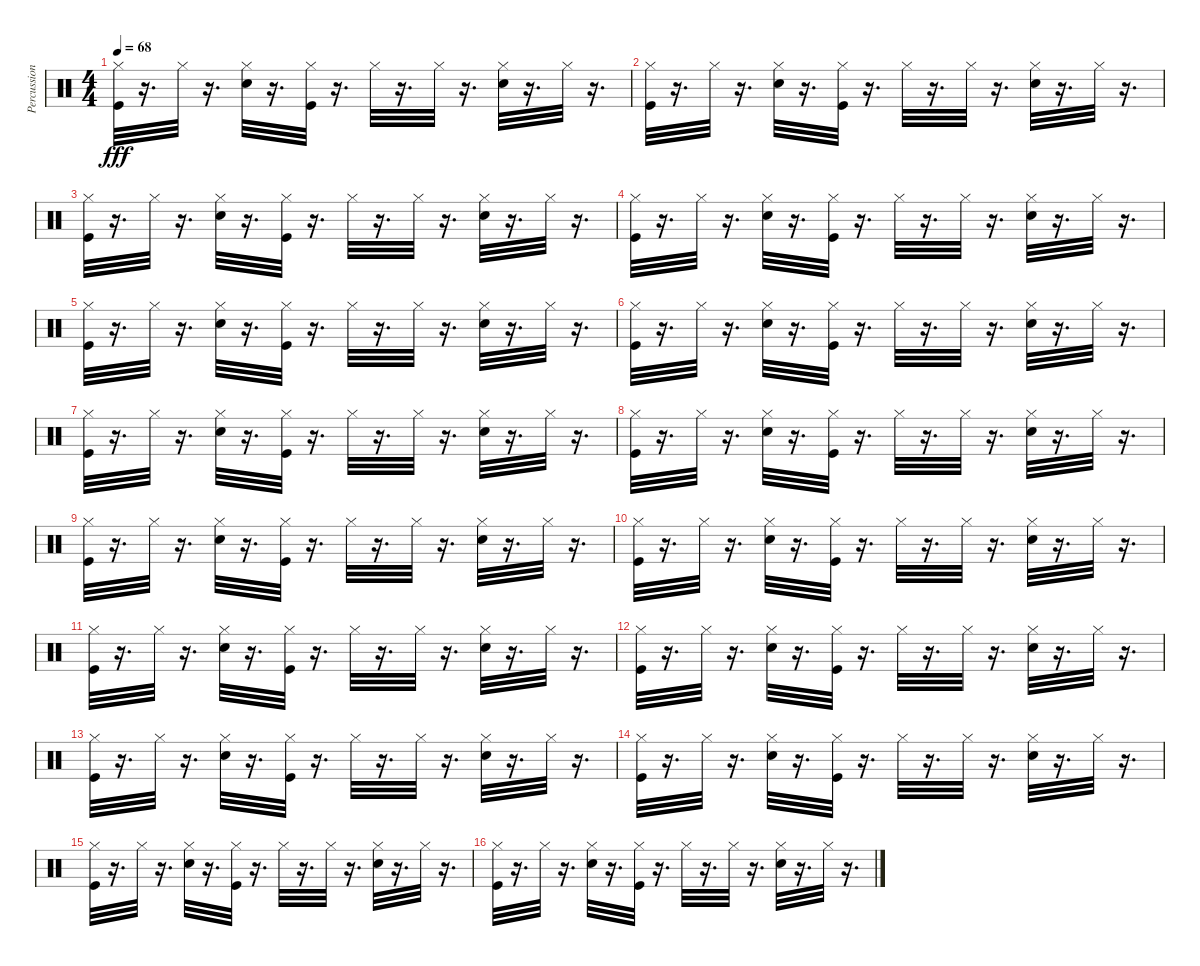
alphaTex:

\track ("Percussion" "Percussion") {instrument percussion}
\staff {score}
\articulation defaults
\ts (4 4)
\tempo 68
\clef neutral
\ks c
("Kick (hit)" "Hi-Hat (closed)").32{dy fff} r.16{d} "Hi-Hat (closed)".32 r.16{d} ("Electric Snare (hit)" "Hi-Hat (closed)").32 r.16{d} ("Kick (hit)" "Hi-Hat (closed)").32 r.16{d} "Hi-Hat (closed)".32 r.16{d} "Hi-Hat (closed)".32 r.16{d} ("Electric Snare (hit)" "Hi-Hat (closed)").32 r.16{d} "Hi-Hat (closed)".32 r.16{d} |
("Kick (hit)" "Hi-Hat (closed)").32 r.16{d} "Hi-Hat (closed)".32 r.16{d} ("Electric Snare (hit)" "Hi-Hat (closed)").32 r.16{d} ("Kick (hit)" "Hi-Hat (closed)").32 r.16{d} "Hi-Hat (closed)".32 r.16{d} "Hi-Hat (closed)".32 r.16{d} ("Electric Snare (hit)" "Hi-Hat (closed)").32 r.16{d} "Hi-Hat (closed)".32 r.16{d} |
("Kick (hit)" "Hi-Hat (closed)").32 r.16{d} "Hi-Hat (closed)".32 r.16{d} ("Electric Snare (hit)" "Hi-Hat (closed)").32 r.16{d} ("Kick (hit)" "Hi-Hat (closed)").32 r.16{d} "Hi-Hat (closed)".32 r.16{d} "Hi-Hat (closed)".32 r.16{d} ("Electric Snare (hit)" "Hi-Hat (closed)").32 r.16{d} "Hi-Hat (closed)".32 r.16{d} |
("Kick (hit)" "Hi-Hat (closed)").32 r.16{d} "Hi-Hat (closed)".32 r.16{d} ("Electric Snare (hit)" "Hi-Hat (closed)").32 r.16{d} ("Kick (hit)" "Hi-Hat (closed)").32 r.16{d} "Hi-Hat (closed)".32 r.16{d} "Hi-Hat (closed)".32 r.16{d} ("Electric Snare (hit)" "Hi-Hat (closed)").32 r.16{d} "Hi-Hat (closed)".32 r.16{d} |
("Kick (hit)" "Hi-Hat (closed)").32 r.16{d} "Hi-Hat (closed)".32 r.16{d} ("Electric Snare (hit)" "Hi-Hat (closed)").32 r.16{d} ("Kick (hit)" "Hi-Hat (closed)").32 r.16{d} "Hi-Hat (closed)".32 r.16{d} "Hi-Hat (closed)".32 r.16{d} ("Electric Snare (hit)" "Hi-Hat (closed)").32 r.16{d} "Hi-Hat (closed)".32 r.16{d} |
("Kick (hit)" "Hi-Hat (closed)").32 r.16{d} "Hi-Hat (closed)".32 r.16{d} ("Electric Snare (hit)" "Hi-Hat (closed)").32 r.16{d} ("Kick (hit)" "Hi-Hat (closed)").32 r.16{d} "Hi-Hat (closed)".32 r.16{d} "Hi-Hat (closed)".32 r.16{d} ("Electric Snare (hit)" "Hi-Hat (closed)").32 r.16{d} "Hi-Hat (closed)".32 r.16{d} |
("Kick (hit)" "Hi-Hat (closed)").32 r.16{d} "Hi-Hat (closed)".32 r.16{d} ("Electric Snare (hit)" "Hi-Hat (closed)").32 r.16{d} ("Kick (hit)" "Hi-Hat (closed)").32 r.16{d} "Hi-Hat (closed)".32 r.16{d} "Hi-Hat (closed)".32 r.16{d} ("Electric Snare (hit)" "Hi-Hat (closed)").32 r.16{d} "Hi-Hat (closed)".32 r.16{d} |
("Kick (hit)" "Hi-Hat (closed)").32 r.16{d} "Hi-Hat (closed)".32 r.16{d} ("Electric Snare (hit)" "Hi-Hat (closed)").32 r.16{d} ("Kick (hit)" "Hi-Hat (closed)").32 r.16{d} "Hi-Hat (closed)".32 r.16{d} "Hi-Hat (closed)".32 r.16{d} ("Electric Snare (hit)" "Hi-Hat (closed)").32 r.16{d} "Hi-Hat (closed)".32 r.16{d} |
("Kick (hit)" "Hi-Hat (closed)").32 r.16{d} "Hi-Hat (closed)".32 r.16{d} ("Electric Snare (hit)" "Hi-Hat (closed)").32 r.16{d} ("Kick (hit)" "Hi-Hat (closed)").32 r.16{d} "Hi-Hat (closed)".32 r.16{d} "Hi-Hat (closed)".32 r.16{d} ("Electric Snare (hit)" "Hi-Hat (closed)").32 r.16{d} "Hi-Hat (closed)".32 r.16{d} |
("Kick (hit)" "Hi-Hat (closed)").32 r.16{d} "Hi-Hat (closed)".32 r.16{d} ("Electric Snare (hit)" "Hi-Hat (closed)").32 r.16{d} ("Kick (hit)" "Hi-Hat (closed)").32 r.16{d} "Hi-Hat (closed)".32 r.16{d} "Hi-Hat (closed)".32 r.16{d} ("Electric Snare (hit)" "Hi-Hat (closed)").32 r.16{d} "Hi-Hat (closed)".32 r.16{d} |
("Kick (hit)" "Hi-Hat (closed)").32 r.16{d} "Hi-Hat (closed)".32 r.16{d} ("Electric Snare (hit)" "Hi-Hat (closed)").32 r.16{d} ("Kick (hit)" "Hi-Hat (closed)").32 r.16{d} "Hi-Hat (closed)".32 r.16{d} "Hi-Hat (closed)".32 r.16{d} ("Electric Snare (hit)" "Hi-Hat (closed)").32 r.16{d} "Hi-Hat (closed)".32 r.16{d} |
("Kick (hit)" "Hi-Hat (closed)").32 r.16{d} "Hi-Hat (closed)".32 r.16{d} ("Electric Snare (hit)" "Hi-Hat (closed)").32 r.16{d} ("Kick (hit)" "Hi-Hat (closed)").32 r.16{d} "Hi-Hat (closed)".32 r.16{d} "Hi-Hat (closed)".32 r.16{d} ("Electric Snare (hit)" "Hi-Hat (closed)").32 r.16{d} "Hi-Hat (closed)".32 r.16{d} |
("Kick (hit)" "Hi-Hat (closed)").32 r.16{d} "Hi-Hat (closed)".32 r.16{d} ("Electric Snare (hit)" "Hi-Hat (closed)").32 r.16{d} ("Kick (hit)" "Hi-Hat (closed)").32 r.16{d} "Hi-Hat (closed)".32 r.16{d} "Hi-Hat (closed)".32 r.16{d} ("Electric Snare (hit)" "Hi-Hat (closed)").32 r.16{d} "Hi-Hat (closed)".32 r.16{d} |
("Kick (hit)" "Hi-Hat (closed)").32 r.16{d} "Hi-Hat (closed)".32 r.16{d} ("Electric Snare (hit)" "Hi-Hat (closed)").32 r.16{d} ("Kick (hit)" "Hi-Hat (closed)").32 r.16{d} "Hi-Hat (closed)".32 r.16{d} "Hi-Hat (closed)".32 r.16{d} ("Electric Snare (hit)" "Hi-Hat (closed)").32 r.16{d} "Hi-Hat (closed)".32 r.16{d} |
("Kick (hit)" "Hi-Hat (closed)").32 r.16{d} "Hi-Hat (closed)".32 r.16{d} ("Electric Snare (hit)" "Hi-Hat (closed)").32 r.16{d} ("Kick (hit)" "Hi-Hat (closed)").32 r.16{d} "Hi-Hat (closed)".32 r.16{d} "Hi-Hat (closed)".32 r.16{d} ("Electric Snare (hit)" "Hi-Hat (closed)").32 r.16{d} "Hi-Hat (closed)".32 r.16{d} |
("Kick (hit)" "Hi-Hat (closed)").32 r.16{d} "Hi-Hat (closed)".32 r.16{d} ("Electric Snare (hit)" "Hi-Hat (closed)").32 r.16{d} ("Kick (hit)" "Hi-Hat (closed)").32 r.16{d} "Hi-Hat (closed)".32 r.16{d} "Hi-Hat (closed)".32 r.16{d} ("Electric Snare (hit)" "Hi-Hat (closed)").32 r.16{d} "Hi-Hat (closed)".32 r.16{d}
